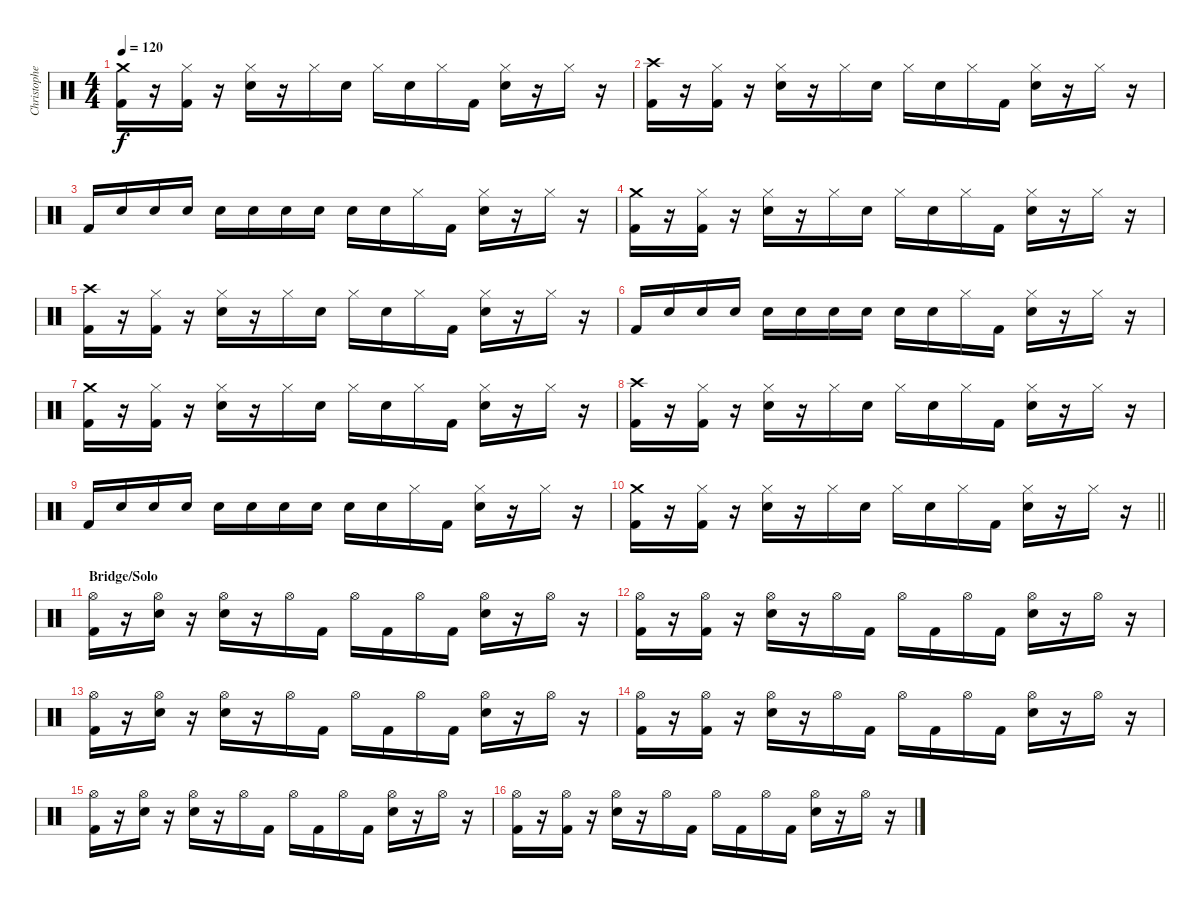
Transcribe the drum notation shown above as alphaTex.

\track ("Christopher - Drums" "Christophe") {instrument percussion}
\staff {score}
\articulation defaults
\ts (4 4)
\tempo 120
\clef neutral
\ks c
("Crash medium (hit)" "Kick (hit) 2").16{dy f} r.16 ("Hi-Hat (closed)" "Kick (hit) 2").16 r.16 ("Hi-Hat (closed)" "Electric Snare (hit)").16 r.16 "Hi-Hat (closed)".16 "Electric Snare (hit)".16 "Hi-Hat (closed)".16 "Electric Snare (hit)".16 "Hi-Hat (closed)".16 "Kick (hit) 2".16 ("Hi-Hat (closed)" "Electric Snare (hit)").16 r.16 "Hi-Hat (closed)".16 r.16 |
("Crash high (hit)" "Kick (hit) 2").16 r.16 ("Hi-Hat (closed)" "Kick (hit) 2").16 r.16 ("Hi-Hat (closed)" "Electric Snare (hit)").16 r.16 "Hi-Hat (closed)".16 "Electric Snare (hit)".16 "Hi-Hat (closed)".16 "Electric Snare (hit)".16 "Hi-Hat (closed)".16 "Kick (hit) 2".16 ("Hi-Hat (closed)" "Electric Snare (hit)").16 r.16 "Hi-Hat (closed)".16 r.16 |
"Kick (hit) 2".16 "Electric Snare (hit)".16 "Electric Snare (hit)".16 "Electric Snare (hit)".16 "Electric Snare (hit)".16 "Electric Snare (hit)".16 "Electric Snare (hit)".16 "Electric Snare (hit)".16 "Electric Snare (hit)".16 "Electric Snare (hit)".16 "Hi-Hat (closed)".16 "Kick (hit) 2".16 ("Hi-Hat (closed)" "Electric Snare (hit)").16 r.16 "Hi-Hat (closed)".16 r.16 |
("Crash medium (hit)" "Kick (hit) 2").16 r.16 ("Hi-Hat (closed)" "Kick (hit) 2").16 r.16 ("Hi-Hat (closed)" "Electric Snare (hit)").16 r.16 "Hi-Hat (closed)".16 "Electric Snare (hit)".16 "Hi-Hat (closed)".16 "Electric Snare (hit)".16 "Hi-Hat (closed)".16 "Kick (hit) 2".16 ("Hi-Hat (closed)" "Electric Snare (hit)").16 r.16 "Hi-Hat (closed)".16 r.16 |
("Crash high (hit)" "Kick (hit) 2").16 r.16 ("Hi-Hat (closed)" "Kick (hit) 2").16 r.16 ("Hi-Hat (closed)" "Electric Snare (hit)").16 r.16 "Hi-Hat (closed)".16 "Electric Snare (hit)".16 "Hi-Hat (closed)".16 "Electric Snare (hit)".16 "Hi-Hat (closed)".16 "Kick (hit) 2".16 ("Hi-Hat (closed)" "Electric Snare (hit)").16 r.16 "Hi-Hat (closed)".16 r.16 |
"Kick (hit) 2".16 "Electric Snare (hit)".16 "Electric Snare (hit)".16 "Electric Snare (hit)".16 "Electric Snare (hit)".16 "Electric Snare (hit)".16 "Electric Snare (hit)".16 "Electric Snare (hit)".16 "Electric Snare (hit)".16 "Electric Snare (hit)".16 "Hi-Hat (closed)".16 "Kick (hit) 2".16 ("Hi-Hat (closed)" "Electric Snare (hit)").16 r.16 "Hi-Hat (closed)".16 r.16 |
("Crash medium (hit)" "Kick (hit) 2").16 r.16 ("Hi-Hat (closed)" "Kick (hit) 2").16 r.16 ("Hi-Hat (closed)" "Electric Snare (hit)").16 r.16 "Hi-Hat (closed)".16 "Electric Snare (hit)".16 "Hi-Hat (closed)".16 "Electric Snare (hit)".16 "Hi-Hat (closed)".16 "Kick (hit) 2".16 ("Hi-Hat (closed)" "Electric Snare (hit)").16 r.16 "Hi-Hat (closed)".16 r.16 |
("Crash high (hit)" "Kick (hit) 2").16 r.16 ("Hi-Hat (closed)" "Kick (hit) 2").16 r.16 ("Hi-Hat (closed)" "Electric Snare (hit)").16 r.16 "Hi-Hat (closed)".16 "Electric Snare (hit)".16 "Hi-Hat (closed)".16 "Electric Snare (hit)".16 "Hi-Hat (closed)".16 "Kick (hit) 2".16 ("Hi-Hat (closed)" "Electric Snare (hit)").16 r.16 "Hi-Hat (closed)".16 r.16 |
"Kick (hit) 2".16 "Electric Snare (hit)".16 "Electric Snare (hit)".16 "Electric Snare (hit)".16 "Electric Snare (hit)".16 "Electric Snare (hit)".16 "Electric Snare (hit)".16 "Electric Snare (hit)".16 "Electric Snare (hit)".16 "Electric Snare (hit)".16 "Hi-Hat (closed)".16 "Kick (hit) 2".16 ("Hi-Hat (closed)" "Electric Snare (hit)").16 r.16 "Hi-Hat (closed)".16 r.16 |
\barLineRight lightlight
("Crash medium (hit)" "Kick (hit) 2").16 r.16 ("Hi-Hat (closed)" "Kick (hit) 2").16 r.16 ("Hi-Hat (closed)" "Electric Snare (hit)").16 r.16 "Hi-Hat (closed)".16 "Electric Snare (hit)".16 "Hi-Hat (closed)".16 "Electric Snare (hit)".16 "Hi-Hat (closed)".16 "Kick (hit) 2".16 ("Hi-Hat (closed)" "Electric Snare (hit)").16 r.16 "Hi-Hat (closed)".16 r.16 |
\section ("" "Bridge/Solo")
("Hi-Hat (open)" "Kick (hit) 2").16 r.16 ("Hi-Hat (open)" "Electric Snare (hit)").16 r.16 ("Hi-Hat (open)" "Electric Snare (hit)").16 r.16 "Hi-Hat (open)".16 "Kick (hit) 2".16 "Hi-Hat (open)".16 "Kick (hit) 2".16 "Hi-Hat (open)".16 "Kick (hit) 2".16 ("Hi-Hat (open)" "Electric Snare (hit)").16 r.16 "Hi-Hat (open)".16 r.16 |
("Hi-Hat (open)" "Kick (hit) 2").16 r.16 ("Hi-Hat (open)" "Kick (hit) 2").16 r.16 ("Hi-Hat (open)" "Electric Snare (hit)").16 r.16 "Hi-Hat (open)".16 "Kick (hit) 2".16 "Hi-Hat (open)".16 "Kick (hit) 2".16 "Hi-Hat (open)".16 "Kick (hit) 2".16 ("Hi-Hat (open)" "Electric Snare (hit)").16 r.16 "Hi-Hat (open)".16 r.16 |
("Hi-Hat (open)" "Kick (hit) 2").16 r.16 ("Hi-Hat (open)" "Electric Snare (hit)").16 r.16 ("Hi-Hat (open)" "Electric Snare (hit)").16 r.16 "Hi-Hat (open)".16 "Kick (hit) 2".16 "Hi-Hat (open)".16 "Kick (hit) 2".16 "Hi-Hat (open)".16 "Kick (hit) 2".16 ("Hi-Hat (open)" "Electric Snare (hit)").16 r.16 "Hi-Hat (open)".16 r.16 |
("Hi-Hat (open)" "Kick (hit) 2").16 r.16 ("Hi-Hat (open)" "Kick (hit) 2").16 r.16 ("Hi-Hat (open)" "Electric Snare (hit)").16 r.16 "Hi-Hat (open)".16 "Kick (hit) 2".16 "Hi-Hat (open)".16 "Kick (hit) 2".16 "Hi-Hat (open)".16 "Kick (hit) 2".16 ("Hi-Hat (open)" "Electric Snare (hit)").16 r.16 "Hi-Hat (open)".16 r.16 |
("Hi-Hat (open)" "Kick (hit) 2").16 r.16 ("Hi-Hat (open)" "Electric Snare (hit)").16 r.16 ("Hi-Hat (open)" "Electric Snare (hit)").16 r.16 "Hi-Hat (open)".16 "Kick (hit) 2".16 "Hi-Hat (open)".16 "Kick (hit) 2".16 "Hi-Hat (open)".16 "Kick (hit) 2".16 ("Hi-Hat (open)" "Electric Snare (hit)").16 r.16 "Hi-Hat (open)".16 r.16 |
("Hi-Hat (open)" "Kick (hit) 2").16 r.16 ("Hi-Hat (open)" "Kick (hit) 2").16 r.16 ("Hi-Hat (open)" "Electric Snare (hit)").16 r.16 "Hi-Hat (open)".16 "Kick (hit) 2".16 "Hi-Hat (open)".16 "Kick (hit) 2".16 "Hi-Hat (open)".16 "Kick (hit) 2".16 ("Hi-Hat (open)" "Electric Snare (hit)").16 r.16 "Hi-Hat (open)".16 r.16
